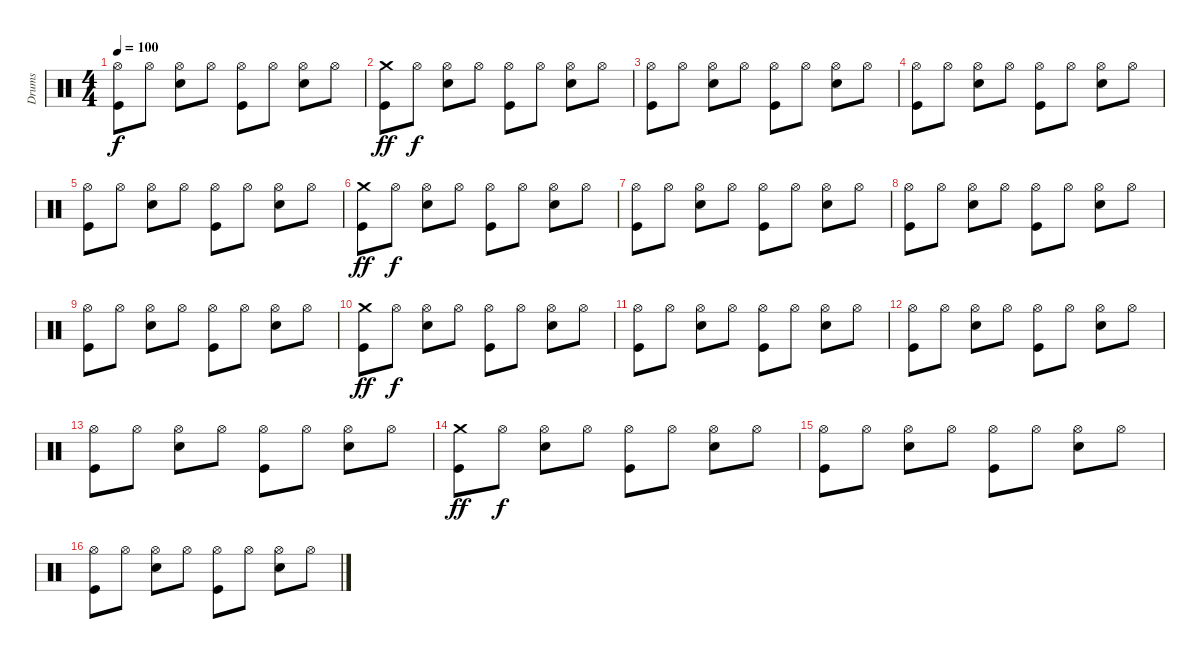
\track ("Drums" "Drums") {instrument percussion}
\staff {score}
\articulation defaults
\ts (4 4)
\tempo 100
\clef neutral
\ks c
("Hi-Hat (open)" "Kick (hit)").8{dy f} "Hi-Hat (open)".8 ("Hi-Hat (open)" "Snare (hit) 2").8 "Hi-Hat (open)".8 ("Hi-Hat (open)" "Kick (hit)").8 "Hi-Hat (open)".8 ("Hi-Hat (open)" "Snare (hit) 2").8 "Hi-Hat (open)".8 |
("Crash medium (hit)" "Kick (hit)").8{dy ff} "Hi-Hat (open)".8{dy f} ("Hi-Hat (open)" "Snare (hit) 2").8 "Hi-Hat (open)".8 ("Hi-Hat (open)" "Kick (hit)").8 "Hi-Hat (open)".8 ("Hi-Hat (open)" "Snare (hit) 2").8 "Hi-Hat (open)".8 |
("Hi-Hat (open)" "Kick (hit)").8 "Hi-Hat (open)".8 ("Hi-Hat (open)" "Snare (hit) 2").8 "Hi-Hat (open)".8 ("Hi-Hat (open)" "Kick (hit)").8 "Hi-Hat (open)".8 ("Hi-Hat (open)" "Snare (hit) 2").8 "Hi-Hat (open)".8 |
("Hi-Hat (open)" "Kick (hit)").8 "Hi-Hat (open)".8 ("Hi-Hat (open)" "Snare (hit) 2").8 "Hi-Hat (open)".8 ("Hi-Hat (open)" "Kick (hit)").8 "Hi-Hat (open)".8 ("Hi-Hat (open)" "Snare (hit) 2").8 "Hi-Hat (open)".8 |
("Hi-Hat (open)" "Kick (hit)").8 "Hi-Hat (open)".8 ("Hi-Hat (open)" "Snare (hit) 2").8 "Hi-Hat (open)".8 ("Hi-Hat (open)" "Kick (hit)").8 "Hi-Hat (open)".8 ("Hi-Hat (open)" "Snare (hit) 2").8 "Hi-Hat (open)".8 |
("Crash medium (hit)" "Kick (hit)").8{dy ff} "Hi-Hat (open)".8{dy f} ("Hi-Hat (open)" "Snare (hit) 2").8 "Hi-Hat (open)".8 ("Hi-Hat (open)" "Kick (hit)").8 "Hi-Hat (open)".8 ("Hi-Hat (open)" "Snare (hit) 2").8 "Hi-Hat (open)".8 |
("Hi-Hat (open)" "Kick (hit)").8 "Hi-Hat (open)".8 ("Hi-Hat (open)" "Snare (hit) 2").8 "Hi-Hat (open)".8 ("Hi-Hat (open)" "Kick (hit)").8 "Hi-Hat (open)".8 ("Hi-Hat (open)" "Snare (hit) 2").8 "Hi-Hat (open)".8 |
("Hi-Hat (open)" "Kick (hit)").8 "Hi-Hat (open)".8 ("Hi-Hat (open)" "Snare (hit) 2").8 "Hi-Hat (open)".8 ("Hi-Hat (open)" "Kick (hit)").8 "Hi-Hat (open)".8 ("Hi-Hat (open)" "Snare (hit) 2").8 "Hi-Hat (open)".8 |
("Hi-Hat (open)" "Kick (hit)").8 "Hi-Hat (open)".8 ("Hi-Hat (open)" "Snare (hit) 2").8 "Hi-Hat (open)".8 ("Hi-Hat (open)" "Kick (hit)").8 "Hi-Hat (open)".8 ("Hi-Hat (open)" "Snare (hit) 2").8 "Hi-Hat (open)".8 |
("Crash medium (hit)" "Kick (hit)").8{dy ff} "Hi-Hat (open)".8{dy f} ("Hi-Hat (open)" "Snare (hit) 2").8 "Hi-Hat (open)".8 ("Hi-Hat (open)" "Kick (hit)").8 "Hi-Hat (open)".8 ("Hi-Hat (open)" "Snare (hit) 2").8 "Hi-Hat (open)".8 |
("Hi-Hat (open)" "Kick (hit)").8 "Hi-Hat (open)".8 ("Hi-Hat (open)" "Snare (hit) 2").8 "Hi-Hat (open)".8 ("Hi-Hat (open)" "Kick (hit)").8 "Hi-Hat (open)".8 ("Hi-Hat (open)" "Snare (hit) 2").8 "Hi-Hat (open)".8 |
("Hi-Hat (open)" "Kick (hit)").8 "Hi-Hat (open)".8 ("Hi-Hat (open)" "Snare (hit) 2").8 "Hi-Hat (open)".8 ("Hi-Hat (open)" "Kick (hit)").8 "Hi-Hat (open)".8 ("Hi-Hat (open)" "Snare (hit) 2").8 "Hi-Hat (open)".8 |
("Hi-Hat (open)" "Kick (hit)").8 "Hi-Hat (open)".8 ("Hi-Hat (open)" "Snare (hit) 2").8 "Hi-Hat (open)".8 ("Hi-Hat (open)" "Kick (hit)").8 "Hi-Hat (open)".8 ("Hi-Hat (open)" "Snare (hit) 2").8 "Hi-Hat (open)".8 |
("Crash medium (hit)" "Kick (hit)").8{dy ff} "Hi-Hat (open)".8{dy f} ("Hi-Hat (open)" "Snare (hit) 2").8 "Hi-Hat (open)".8 ("Hi-Hat (open)" "Kick (hit)").8 "Hi-Hat (open)".8 ("Hi-Hat (open)" "Snare (hit) 2").8 "Hi-Hat (open)".8 |
("Hi-Hat (open)" "Kick (hit)").8 "Hi-Hat (open)".8 ("Hi-Hat (open)" "Snare (hit) 2").8 "Hi-Hat (open)".8 ("Hi-Hat (open)" "Kick (hit)").8 "Hi-Hat (open)".8 ("Hi-Hat (open)" "Snare (hit) 2").8 "Hi-Hat (open)".8 |
("Hi-Hat (open)" "Kick (hit)").8 "Hi-Hat (open)".8 ("Hi-Hat (open)" "Snare (hit) 2").8 "Hi-Hat (open)".8 ("Hi-Hat (open)" "Kick (hit)").8 "Hi-Hat (open)".8 ("Hi-Hat (open)" "Snare (hit) 2").8 "Hi-Hat (open)".8
